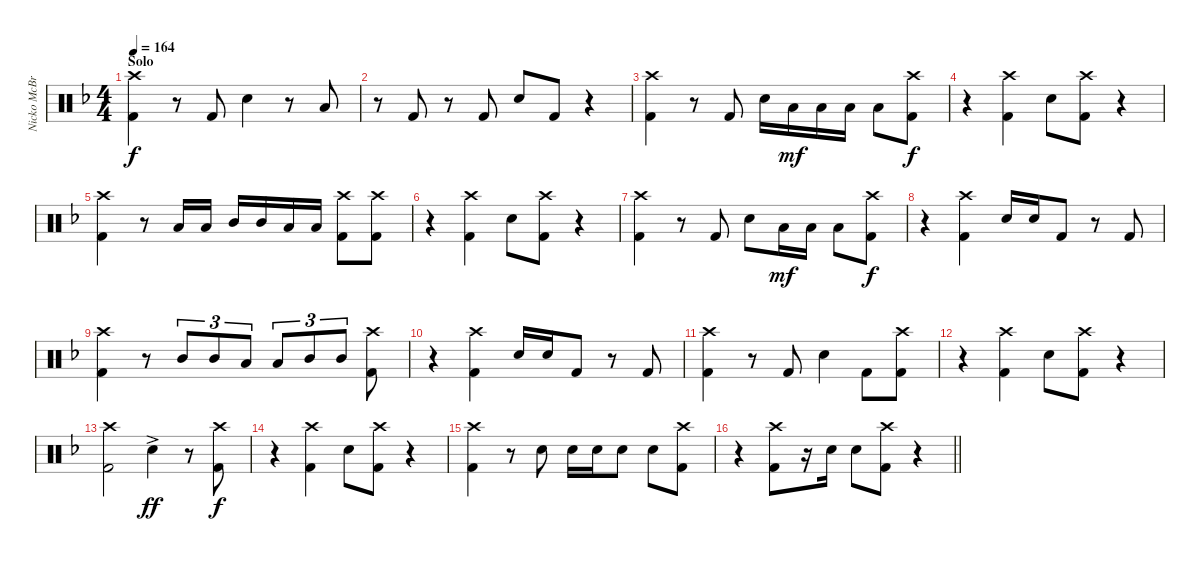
\track ("Nicko McBrain" "Nicko McBr") {instrument percussion}
\staff {score}
\articulation defaults
\ts (4 4)
\section ("" "Solo")
\tempo 164
\clef neutral
\ks f
("Crash high (hit)" "Kick (hit) 2").4{dy f} r.8 "Kick (hit) 2".8 "Electric Snare (hit)".4 r.8 "Low Tom (hit)".8 |
r.8 "Kick (hit) 2".8 r.8 "Kick (hit) 2".8 "Electric Snare (hit)".8 "Kick (hit) 2".8 r.4 |
("Crash high (hit)" "Kick (hit) 2").4 r.8 "Kick (hit) 2".8 "Electric Snare (hit)".16 "Low Tom (hit)".16{dy mf} "Low Tom (hit)".16 "Low Tom (hit)".16 "Low Tom (hit)".8 ("Crash high (hit)" "Kick (hit) 2").8{dy f} |
r.4 ("Crash high (hit)" "Kick (hit) 2").4 "Electric Snare (hit)".8 ("Crash high (hit)" "Kick (hit) 2").8 r.4 |
("Crash high (hit)" "Kick (hit) 2").4 r.8 "Low Tom (hit)".16 "Low Tom (hit)".16 "Mid Tom (hit)".16 "Mid Tom (hit)".16 "Low Tom (hit)".16 "Low Tom (hit)".16 ("Crash high (hit)" "Kick (hit) 2").8 ("Crash high (hit)" "Kick (hit) 2").8 |
r.4 ("Crash high (hit)" "Kick (hit) 2").4 "Electric Snare (hit)".8 ("Crash high (hit)" "Kick (hit) 2").8 r.4 |
("Crash high (hit)" "Kick (hit) 2").4 r.8 "Kick (hit) 2".8 "Electric Snare (hit)".8 "Low Tom (hit)".16{dy mf} "Low Tom (hit)".16 "Low Tom (hit)".8 ("Crash high (hit)" "Kick (hit) 2").8{dy f} |
r.4 ("Crash high (hit)" "Kick (hit) 2").4 "Electric Snare (hit)".16 "Electric Snare (hit)".16 "Kick (hit) 2".8 r.8 "Kick (hit) 2".8 |
("Crash high (hit)" "Kick (hit) 2").4 r.8 "Mid Tom (hit)".8{tu (3 2)} "Mid Tom (hit)".8{tu (3 2)} "Low Tom (hit)".8{tu (3 2)} "Low Tom (hit)".8{tu (3 2)} "Mid Tom (hit)".8{tu (3 2)} "Mid Tom (hit)".8{tu (3 2)} ("Crash high (hit)" "Kick (hit) 2").8 |
r.4 ("Crash high (hit)" "Kick (hit) 2").4 "Electric Snare (hit)".16 "Electric Snare (hit)".16 "Kick (hit) 2".8 r.8 "Kick (hit) 2".8 |
("Crash high (hit)" "Kick (hit) 2").4 r.8 "Kick (hit) 2".8 "Electric Snare (hit)".4 "Kick (hit) 2".8 ("Crash high (hit)" "Kick (hit) 2").8 |
r.4 ("Crash high (hit)" "Kick (hit) 2").4 "Electric Snare (hit)".8 ("Crash high (hit)" "Kick (hit) 2").8 r.4 |
("Crash high (hit)" "Kick (hit) 2").2 "Electric Snare (hit)"{ac}.4{dy ff} r.8 ("Crash high (hit)" "Kick (hit) 2").8{dy f} |
r.4 ("Crash high (hit)" "Kick (hit) 2").4 "Electric Snare (hit)".8 ("Crash high (hit)" "Kick (hit) 2").8 r.4 |
("Crash high (hit)" "Kick (hit) 2").4 r.8 "Electric Snare (hit)".8 "Electric Snare (hit)".16 "Electric Snare (hit)".16 "Electric Snare (hit)".8 "Electric Snare (hit)".8 ("Crash high (hit)" "Kick (hit) 2").8 |
\barLineRight lightlight
r.4 ("Crash high (hit)" "Kick (hit) 2").8 r.16 "Electric Snare (hit)".16 "Electric Snare (hit)".8 ("Crash high (hit)" "Kick (hit) 2").8 r.4
